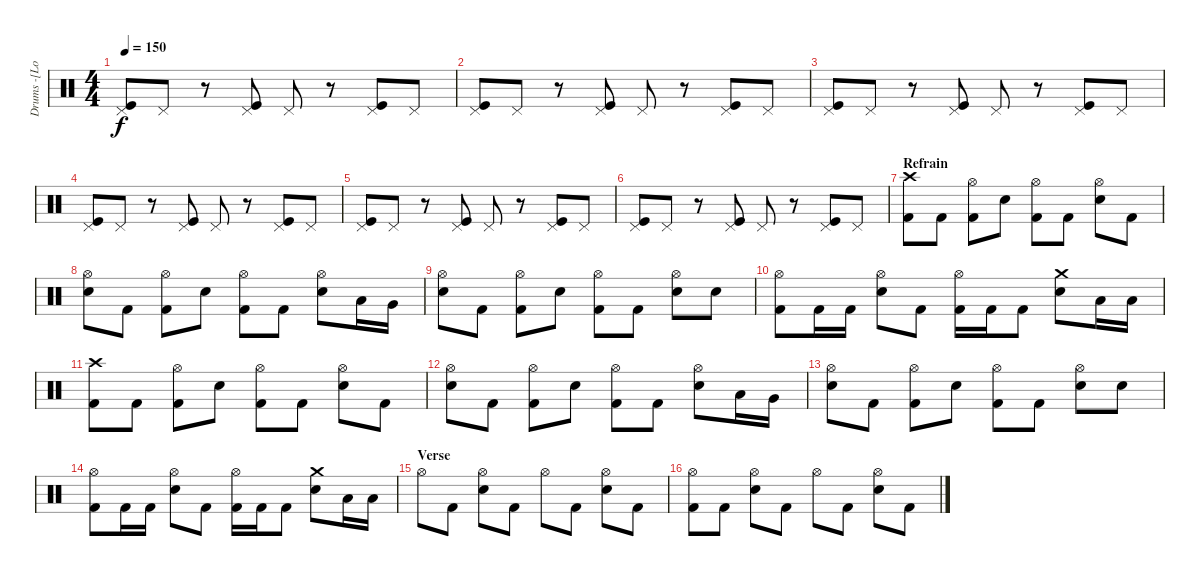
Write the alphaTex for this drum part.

\track ("Drums -[Lorenz]-" "Drums -[Lo") {instrument percussion}
\staff {score}
\articulation defaults
\ts (4 4)
\tempo 150
\clef neutral
\ks c
("Pedal Hi-Hat (hit)" "Kick (hit)").8{dy f} "Pedal Hi-Hat (hit)".8 r.8 ("Pedal Hi-Hat (hit)" "Kick (hit)").8 "Pedal Hi-Hat (hit)".8 r.8 ("Pedal Hi-Hat (hit)" "Kick (hit)").8 "Pedal Hi-Hat (hit)".8 |
("Pedal Hi-Hat (hit)" "Kick (hit)").8 "Pedal Hi-Hat (hit)".8 r.8 ("Pedal Hi-Hat (hit)" "Kick (hit)").8 "Pedal Hi-Hat (hit)".8 r.8 ("Pedal Hi-Hat (hit)" "Kick (hit)").8 "Pedal Hi-Hat (hit)".8 |
("Pedal Hi-Hat (hit)" "Kick (hit)").8 "Pedal Hi-Hat (hit)".8 r.8 ("Pedal Hi-Hat (hit)" "Kick (hit)").8 "Pedal Hi-Hat (hit)".8 r.8 ("Pedal Hi-Hat (hit)" "Kick (hit)").8 "Pedal Hi-Hat (hit)".8 |
("Pedal Hi-Hat (hit)" "Kick (hit)").8 "Pedal Hi-Hat (hit)".8 r.8 ("Pedal Hi-Hat (hit)" "Kick (hit)").8 "Pedal Hi-Hat (hit)".8 r.8 ("Pedal Hi-Hat (hit)" "Kick (hit)").8 "Pedal Hi-Hat (hit)".8 |
("Pedal Hi-Hat (hit)" "Kick (hit)").8 "Pedal Hi-Hat (hit)".8 r.8 ("Pedal Hi-Hat (hit)" "Kick (hit)").8 "Pedal Hi-Hat (hit)".8 r.8 ("Pedal Hi-Hat (hit)" "Kick (hit)").8 "Pedal Hi-Hat (hit)".8 |
("Pedal Hi-Hat (hit)" "Kick (hit)").8 "Pedal Hi-Hat (hit)".8 r.8 ("Pedal Hi-Hat (hit)" "Kick (hit)").8 "Pedal Hi-Hat (hit)".8 r.8 ("Pedal Hi-Hat (hit)" "Kick (hit)").8 "Pedal Hi-Hat (hit)".8 |
\section ("" "Refrain")
("Crash high (hit)" "Kick (hit) 2").8 "Kick (hit) 2".8 ("Hi-Hat (open)" "Kick (hit) 2").8 "Electric Snare (hit)".8 ("Hi-Hat (open)" "Kick (hit) 2").8 "Kick (hit) 2".8 ("Hi-Hat (open)" "Electric Snare (hit)").8 "Kick (hit) 2".8 |
("Hi-Hat (open)" "Electric Snare (hit)").8 "Kick (hit) 2".8 ("Hi-Hat (open)" "Kick (hit) 2").8 "Electric Snare (hit)".8 ("Hi-Hat (open)" "Kick (hit) 2").8 "Kick (hit) 2".8 ("Hi-Hat (open)" "Electric Snare (hit)").8 "Low Tom (hit)".16 "Very Low Tom (hit)".16 |
("Hi-Hat (open)" "Electric Snare (hit)").8 "Kick (hit) 2".8 ("Hi-Hat (open)" "Kick (hit) 2").8 "Electric Snare (hit)".8 ("Hi-Hat (open)" "Kick (hit) 2").8 "Kick (hit) 2".8 ("Hi-Hat (open)" "Electric Snare (hit)").8 "Electric Snare (hit)".8 |
("Hi-Hat (open)" "Kick (hit) 2").8 "Kick (hit) 2".16 "Kick (hit) 2".16 ("Hi-Hat (open)" "Electric Snare (hit)").8 "Kick (hit) 2".8 ("Hi-Hat (open)" "Kick (hit) 2").16 "Kick (hit) 2".16 "Kick (hit) 2".8 ("Crash medium (hit)" "Electric Snare (hit)").8 "Low Tom (hit)".16 "Low Tom (hit)".16 |
("Crash high (hit)" "Kick (hit) 2").8 "Kick (hit) 2".8 ("Hi-Hat (open)" "Kick (hit) 2").8 "Electric Snare (hit)".8 ("Hi-Hat (open)" "Kick (hit) 2").8 "Kick (hit) 2".8 ("Hi-Hat (open)" "Electric Snare (hit)").8 "Kick (hit) 2".8 |
("Hi-Hat (open)" "Electric Snare (hit)").8 "Kick (hit) 2".8 ("Hi-Hat (open)" "Kick (hit) 2").8 "Electric Snare (hit)".8 ("Hi-Hat (open)" "Kick (hit) 2").8 "Kick (hit) 2".8 ("Hi-Hat (open)" "Electric Snare (hit)").8 "Low Tom (hit)".16 "Very Low Tom (hit)".16 |
("Hi-Hat (open)" "Electric Snare (hit)").8 "Kick (hit) 2".8 ("Hi-Hat (open)" "Kick (hit) 2").8 "Electric Snare (hit)".8 ("Hi-Hat (open)" "Kick (hit) 2").8 "Kick (hit) 2".8 ("Hi-Hat (open)" "Electric Snare (hit)").8 "Electric Snare (hit)".8 |
("Hi-Hat (open)" "Kick (hit) 2").8 "Kick (hit) 2".16 "Kick (hit) 2".16 ("Hi-Hat (open)" "Electric Snare (hit)").8 "Kick (hit) 2".8 ("Hi-Hat (open)" "Kick (hit) 2").16 "Kick (hit) 2".16 "Kick (hit) 2".8 ("Crash medium (hit)" "Electric Snare (hit)").8 "Low Tom (hit)".16 "Low Tom (hit)".16 |
\section ("" "Verse")
"Hi-Hat (open)".8 "Kick (hit) 2".8 ("Hi-Hat (open)" "Electric Snare (hit)").8 "Kick (hit) 2".8 "Hi-Hat (open)".8 "Kick (hit) 2".8 ("Hi-Hat (open)" "Electric Snare (hit)").8 "Kick (hit) 2".8 |
("Hi-Hat (open)" "Kick (hit) 2").8 "Kick (hit) 2".8 ("Hi-Hat (open)" "Electric Snare (hit)").8 "Kick (hit) 2".8 "Hi-Hat (open)".8 "Kick (hit) 2".8 ("Hi-Hat (open)" "Electric Snare (hit)").8 "Kick (hit) 2".8
